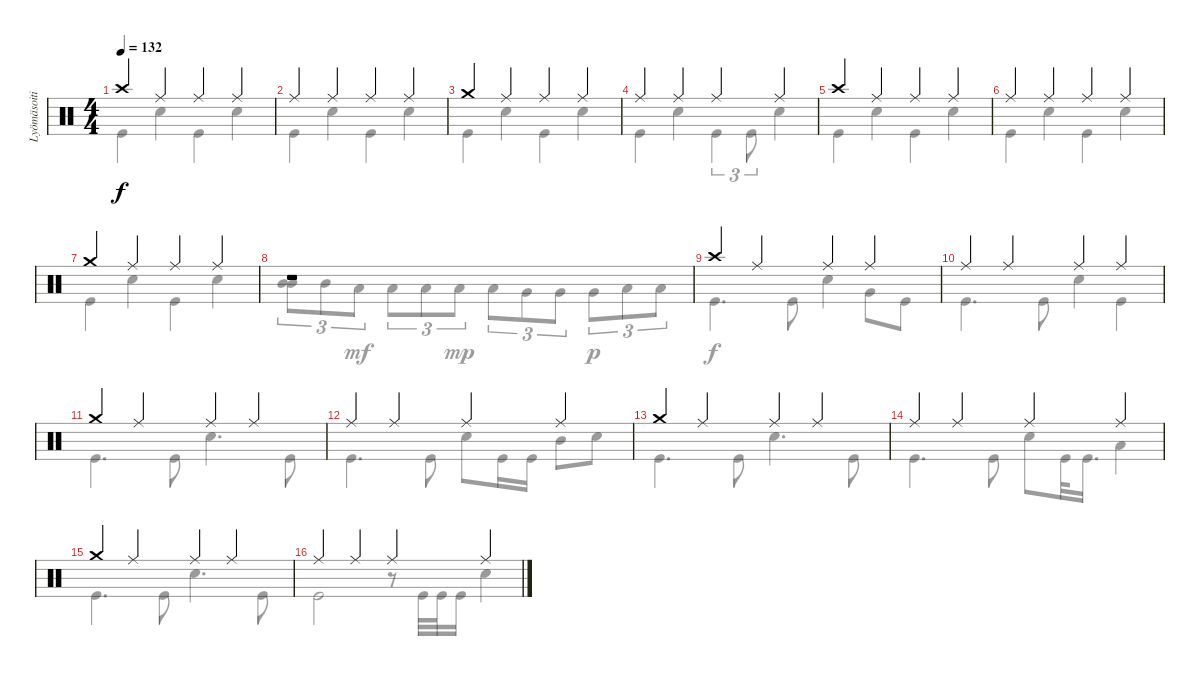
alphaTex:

\track ("Lyömäsoitin" "Lyömäsoiti") {instrument percussion}
\staff {score}
\articulation defaults
\voice
\ts (4 4)
\tempo 132
\clef neutral
\ks c "Crash high (hit)".4{dy f} "Ride (middle)".4 "Ride (middle)".4 "Ride (middle)".4
|
"Ride (middle)".4 "Ride (middle)".4 "Ride (middle)".4 "Ride (middle)".4 |
"Crash medium (hit)".4 "Ride (middle)".4 "Ride (middle)".4 "Ride (middle)".4 |
"Ride (middle)".4 "Ride (middle)".4 "Ride (middle)".4 "Ride (middle)".4 |
"Crash high (hit)".4 "Ride (middle)".4 "Ride (middle)".4 "Ride (middle)".4 |
"Ride (middle)".4 "Ride (middle)".4 "Ride (middle)".4 "Ride (middle)".4 |
"Crash medium (hit)".4 "Ride (middle)".4 "Ride (middle)".4 "Ride (middle)".4 |
r.1 |
"Crash high (hit)".4 "Ride (middle)".4 "Ride (middle)".4 "Ride (middle)".4 |
"Ride (middle)".4 "Ride (middle)".4 "Ride (middle)".4 "Ride (middle)".4 |
"Crash medium (hit)".4 "Ride (middle)".4 "Ride (middle)".4 "Ride (middle)".4 |
"Ride (middle)".4 "Ride (middle)".4 "Ride (middle)".4 "Ride (middle)".4 |
"Crash medium (hit)".4 "Ride (middle)".4 "Ride (middle)".4 "Ride (middle)".4 |
"Ride (middle)".4 "Ride (middle)".4 "Ride (middle)".4 "Ride (middle)".4 |
"Crash medium (hit)".4 "Ride (middle)".4 "Ride (middle)".4 "Ride (middle)".4 |
"Ride (middle)".4 "Ride (middle)".4 "Ride (middle)".4 "Ride (middle)".4
\voice
\clef neutral
\ottava regular
\simile none
\ks c "Kick (hit)".4{dy f} "Snare (hit) 2".4 "Kick (hit)".4 "Snare (hit) 2".4
|
"Kick (hit)".4 "Snare (hit) 2".4 "Kick (hit)".4 "Snare (hit) 2".4 |
"Kick (hit)".4 "Snare (hit) 2".4 "Kick (hit)".4 "Snare (hit) 2".4 |
"Kick (hit)".4 "Snare (hit) 2".4 "Kick (hit)".4{tu (3 2)} "Kick (hit)".8{tu (3 2)} "Snare (hit) 2".4 |
"Kick (hit)".4 "Snare (hit) 2".4 "Kick (hit)".4 "Snare (hit) 2".4 |
"Kick (hit)".4 "Snare (hit) 2".4 "Kick (hit)".4 "Snare (hit) 2".4 |
"Kick (hit)".4 "Snare (hit) 2".4 "Kick (hit)".4 "Snare (hit) 2".4 |
("Mid Tom (hit)" "Mid Tom (hit)").8{tu (3 2) bu 120} "Mid Tom (hit)".8{tu (3 2)} "Low Tom (hit)".8{tu (3 2) dy mf} "Low Tom (hit)".8{tu (3 2)} "Low Tom (hit)".8{tu (3 2)} "Low Tom (hit)".8{tu (3 2) dy mp} "Low Tom (hit)".8{tu (3 2)} "Very Low Tom (hit)".8{tu (3 2)} "Very Low Tom (hit)".8{tu (3 2)} "Very Low Tom (hit)".8{tu (3 2) dy p} "Low Floor Tom (hit)".8{tu (3 2)} "Low Floor Tom (hit)".8{tu (3 2)} |
"Kick (hit)".4{d dy f} "Kick (hit)".8 "Snare (hit) 2".4 "Very Low Tom (hit)".8 "Kick (hit)".8 |
"Kick (hit)".4{d} "Kick (hit)".8 "Snare (hit) 2".4 "Kick (hit)".4 |
"Kick (hit)".4{d} "Kick (hit)".8 "Snare (hit) 2".4{d} "Kick (hit)".8 |
"Kick (hit)".4{d} "Kick (hit)".8 "Snare (hit) 2".8 "Kick (hit)".16 "Kick (hit)".16 "Mid Tom (hit)".8 "Snare (hit) 2".8 |
"Kick (hit)".4{d} "Kick (hit)".8 "Snare (hit) 2".4{d} "Kick (hit)".8 |
"Kick (hit)".4{d} "Kick (hit)".8 "Snare (hit) 2".8 "Kick (hit)".32 "Kick (hit)".16{d} "Low Tom (hit)".4 |
"Kick (hit)".4{d} "Kick (hit)".8 "Snare (hit) 2".4{d} "Kick (hit)".8 |
"Kick (hit)".2 r.8 "Kick (hit)".32 "Kick (hit)".32 "Kick (hit)".16 "Snare (hit) 2".4
